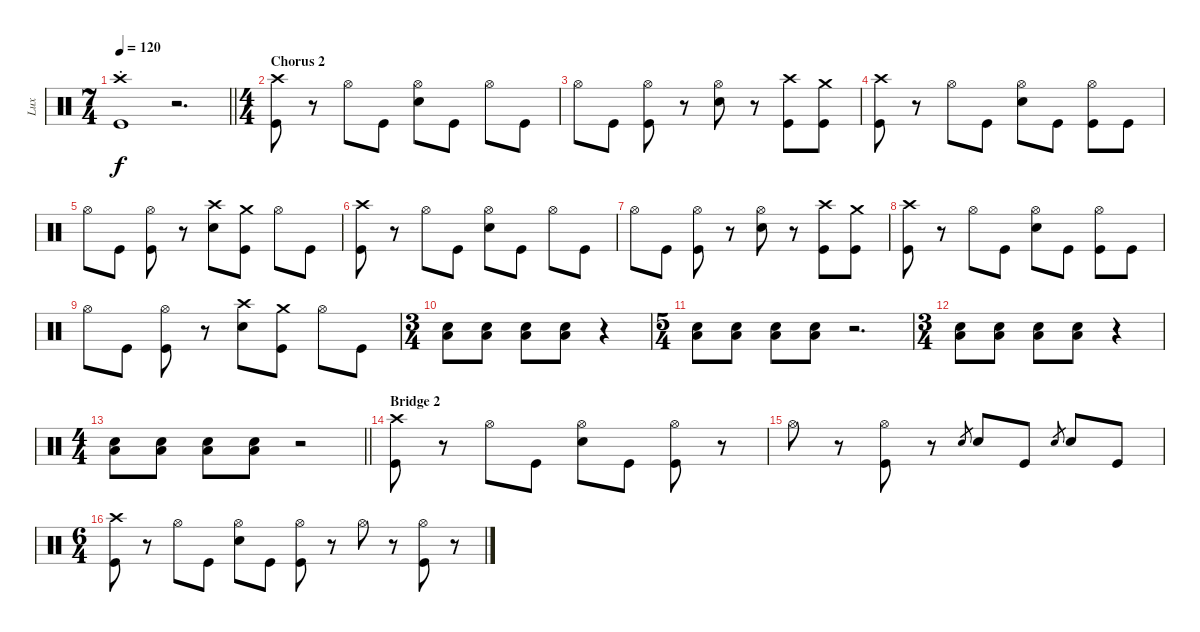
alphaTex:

\track ("Lux" "Lux") {instrument percussion}
\staff {score}
\articulation defaults
\ts (7 4)
\tempo 120
\clef neutral
\barLineRight lightlight
\ks c
("Crash high (hit)"{st} "Kick (hit)").1{dy f} r.2{d} |
\ts (4 4)
\section ("" "Chorus 2")
("Crash high (hit)" "Kick (hit)").8 r.8 "Hi-Hat (open)".8 "Kick (hit)".8 ("Hi-Hat (open)" "Snare (hit) 2").8 "Kick (hit)".8 "Hi-Hat (open)".8 "Kick (hit)".8 |
"Hi-Hat (open)".8 "Kick (hit)".8 ("Hi-Hat (open)" "Kick (hit)").8 r.8 ("Hi-Hat (open)" "Snare (hit) 2").8 r.8 ("Crash high (hit)" "Kick (hit)").8 ("Crash medium (hit)" "Kick (hit)").8 |
("Crash high (hit)" "Kick (hit)").8 r.8 "Hi-Hat (open)".8 "Kick (hit)".8 ("Hi-Hat (open)" "Snare (hit) 2").8 "Kick (hit)".8 ("Hi-Hat (open)" "Kick (hit)").8 "Kick (hit)".8 |
"Hi-Hat (open)".8 "Kick (hit)".8 ("Hi-Hat (open)" "Kick (hit)").8 r.8 ("Crash high (hit)" "Snare (hit) 2").8 ("Crash medium (hit)" "Kick (hit)").8 "Hi-Hat (open)".8 "Kick (hit)".8 |
("Crash high (hit)" "Kick (hit)").8 r.8 "Hi-Hat (open)".8 "Kick (hit)".8 ("Hi-Hat (open)" "Snare (hit) 2").8 "Kick (hit)".8 "Hi-Hat (open)".8 "Kick (hit)".8 |
"Hi-Hat (open)".8 "Kick (hit)".8 ("Hi-Hat (open)" "Kick (hit)").8 r.8 ("Hi-Hat (open)" "Snare (hit) 2").8 r.8 ("Crash high (hit)" "Kick (hit)").8 ("Crash medium (hit)" "Kick (hit)").8 |
("Crash high (hit)" "Kick (hit)").8 r.8 "Hi-Hat (open)".8 "Kick (hit)".8 ("Hi-Hat (open)" "Snare (hit) 2").8 "Kick (hit)".8 ("Hi-Hat (open)" "Kick (hit)").8 "Kick (hit)".8 |
"Hi-Hat (open)".8 "Kick (hit)".8 ("Hi-Hat (open)" "Kick (hit)").8 r.8 ("Crash high (hit)" "Snare (hit) 2").8 ("Crash medium (hit)" "Kick (hit)").8 "Hi-Hat (open)".8 "Kick (hit)".8 |
\ts (3 4)
("Snare (hit) 2" "Low Tom (hit)").8 ("Snare (hit) 2" "Low Tom (hit)").8 ("Snare (hit) 2" "Low Tom (hit)").8 ("Snare (hit) 2" "Low Tom (hit)").8 r.4 |
\ts (5 4)
("Snare (hit) 2" "Low Tom (hit)").8 ("Snare (hit) 2" "Low Tom (hit)").8 ("Snare (hit) 2" "Low Tom (hit)").8 ("Snare (hit) 2" "Low Tom (hit)").8 r.2{d} |
\ts (3 4)
("Snare (hit) 2" "Low Tom (hit)").8 ("Snare (hit) 2" "Low Tom (hit)").8 ("Snare (hit) 2" "Low Tom (hit)").8 ("Snare (hit) 2" "Low Tom (hit)").8 r.4 |
\ts (4 4)
\barLineRight lightlight
("Snare (hit) 2" "Low Tom (hit)").8 ("Snare (hit) 2" "Low Tom (hit)").8 ("Snare (hit) 2" "Low Tom (hit)").8 ("Snare (hit) 2" "Low Tom (hit)").8 r.2 |
\section ("" "Bridge 2")
("Crash high (hit)" "Kick (hit)").8 r.8 "Hi-Hat (open)".8 "Kick (hit)".8 ("Hi-Hat (open)" "Snare (hit) 2").8 "Kick (hit)".8 ("Hi-Hat (open)" "Kick (hit)").8 r.8 |
"Hi-Hat (open)".8 r.8 ("Hi-Hat (open)" "Kick (hit)").8 r.8 "Snare (hit) 2".8{gr} "Snare (hit) 2".8 "Kick (hit)".8 "Snare (hit) 2".8{gr} "Snare (hit) 2".8 "Kick (hit)".8 |
\ts (6 4)
("Crash high (hit)" "Kick (hit)").8 r.8 "Hi-Hat (open)".8 "Kick (hit)".8 ("Hi-Hat (open)" "Snare (hit) 2").8 "Kick (hit)".8 ("Hi-Hat (open)" "Kick (hit)").8 r.8 "Hi-Hat (open)".8 r.8 ("Hi-Hat (open)" "Kick (hit)").8 r.8
